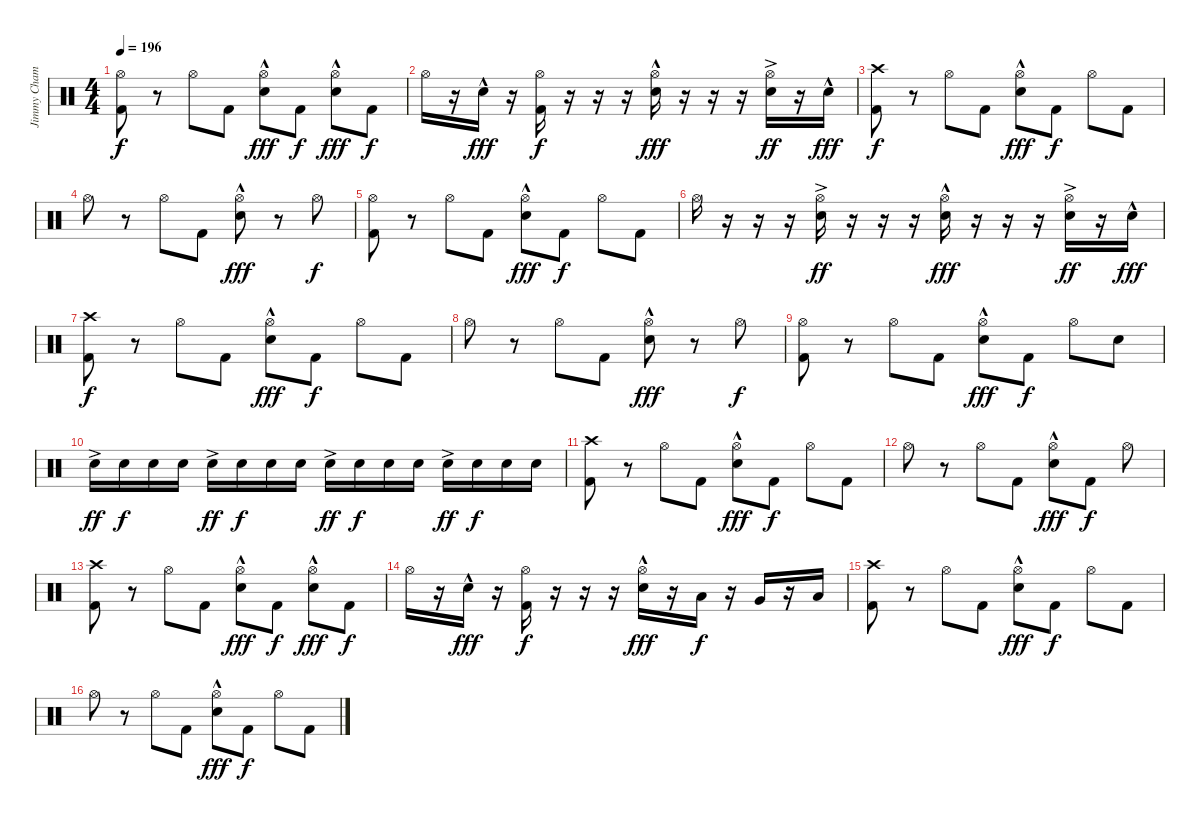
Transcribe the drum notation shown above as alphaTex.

\track ("Jimmy Chamberlin" "Jimmy Cham") {instrument percussion}
\staff {score}
\articulation defaults
\ts (4 4)
\tempo 196
\clef neutral
\ks c
("Hi-Hat (open)" "Kick (hit) 2").8{dy f} r.8 "Hi-Hat (open)".8 "Kick (hit) 2".8 ("Hi-Hat (open)" "Electric Snare (hit)"{hac}).8{dy fff} "Kick (hit) 2".8{dy f} ("Hi-Hat (open)" "Electric Snare (hit)"{hac}).8{dy fff} "Kick (hit) 2".8{dy f} |
"Hi-Hat (open)".16 r.16 "Electric Snare (hit)"{hac}.16{dy fff} r.16 ("Hi-Hat (open)" "Kick (hit) 2").16{dy f} r.16 r.16 r.16 ("Hi-Hat (open)" "Electric Snare (hit)"{hac}).16{dy fff} r.16 r.16 r.16 ("Hi-Hat (open)" "Electric Snare (hit)"{ac}).16{dy ff} r.16 "Electric Snare (hit)"{hac}.16{dy fff} |
("Crash high (hit)" "Kick (hit) 2").8{dy f} r.8 "Hi-Hat (open)".8 "Kick (hit) 2".8 ("Hi-Hat (open)" "Electric Snare (hit)"{hac}).8{dy fff} "Kick (hit) 2".8{dy f} "Hi-Hat (open)".8 "Kick (hit) 2".8 |
"Hi-Hat (open)".8 r.8 "Hi-Hat (open)".8 "Kick (hit) 2".8 ("Hi-Hat (open)" "Electric Snare (hit)"{hac}).8{dy fff} r.8 "Hi-Hat (open)".8{dy f} |
("Hi-Hat (open)" "Kick (hit) 2").8 r.8 "Hi-Hat (open)".8 "Kick (hit) 2".8 ("Hi-Hat (open)" "Electric Snare (hit)"{hac}).8{dy fff} "Kick (hit) 2".8{dy f} "Hi-Hat (open)".8 "Kick (hit) 2".8 |
"Hi-Hat (open)".16 r.16 r.16 r.16 ("Hi-Hat (open)" "Electric Snare (hit)"{ac}).16{dy ff} r.16 r.16 r.16 ("Hi-Hat (open)" "Electric Snare (hit)"{hac}).16{dy fff} r.16 r.16 r.16 ("Hi-Hat (open)" "Electric Snare (hit)"{ac}).16{dy ff} r.16 "Electric Snare (hit)"{hac}.16{dy fff} |
("Crash high (hit)" "Kick (hit) 2").8{dy f} r.8 "Hi-Hat (open)".8 "Kick (hit) 2".8 ("Hi-Hat (open)" "Electric Snare (hit)"{hac}).8{dy fff} "Kick (hit) 2".8{dy f} "Hi-Hat (open)".8 "Kick (hit) 2".8 |
"Hi-Hat (open)".8 r.8 "Hi-Hat (open)".8 "Kick (hit) 2".8 ("Hi-Hat (open)" "Electric Snare (hit)"{hac}).8{dy fff} r.8 "Hi-Hat (open)".8{dy f} |
("Hi-Hat (open)" "Kick (hit) 2").8 r.8 "Hi-Hat (open)".8 "Kick (hit) 2".8 ("Hi-Hat (open)" "Electric Snare (hit)"{hac}).8{dy fff} "Kick (hit) 2".8{dy f} "Hi-Hat (open)".8 "Electric Snare (hit)".8 |
"Electric Snare (hit)"{ac}.16{dy ff} "Electric Snare (hit)".16{dy f} "Electric Snare (hit)".16 "Electric Snare (hit)".16 "Electric Snare (hit)"{ac}.16{dy ff} "Electric Snare (hit)".16{dy f} "Electric Snare (hit)".16 "Electric Snare (hit)".16 "Electric Snare (hit)"{ac}.16{dy ff} "Electric Snare (hit)".16{dy f} "Electric Snare (hit)".16 "Electric Snare (hit)".16 "Electric Snare (hit)"{ac}.16{dy ff} "Electric Snare (hit)".16{dy f} "Electric Snare (hit)".16 "Electric Snare (hit)".16 |
("Crash high (hit)" "Kick (hit) 2").8 r.8 "Hi-Hat (open)".8 "Kick (hit) 2".8 ("Hi-Hat (open)" "Electric Snare (hit)"{hac}).8{dy fff} "Kick (hit) 2".8{dy f} "Hi-Hat (open)".8 "Kick (hit) 2".8 |
"Hi-Hat (open)".8 r.8 "Hi-Hat (open)".8 "Kick (hit) 2".8 ("Hi-Hat (open)" "Electric Snare (hit)"{hac}).8{dy fff} "Kick (hit) 2".8{dy f} "Hi-Hat (open)".8 |
("Crash high (hit)" "Kick (hit) 2").8 r.8 "Hi-Hat (open)".8 "Kick (hit) 2".8 ("Hi-Hat (open)" "Electric Snare (hit)"{hac}).8{dy fff} "Kick (hit) 2".8{dy f} ("Hi-Hat (open)" "Electric Snare (hit)"{hac}).8{dy fff} "Kick (hit) 2".8{dy f} |
"Hi-Hat (open)".16 r.16 "Electric Snare (hit)"{hac}.16{dy fff} r.16 ("Hi-Hat (open)" "Kick (hit) 2").16{dy f} r.16 r.16 r.16 ("Hi-Hat (open)" "Electric Snare (hit)"{hac}).16{dy fff} r.16 "Low Tom (hit)".16{dy f} r.16 "Very Low Tom (hit)".16 r.16 "Low Floor Tom (hit)".16 |
("Crash high (hit)" "Kick (hit) 2").8 r.8 "Hi-Hat (open)".8 "Kick (hit) 2".8 ("Hi-Hat (open)" "Electric Snare (hit)"{hac}).8{dy fff} "Kick (hit) 2".8{dy f} "Hi-Hat (open)".8 "Kick (hit) 2".8 |
"Hi-Hat (open)".8 r.8 "Hi-Hat (open)".8 "Kick (hit) 2".8 ("Hi-Hat (open)" "Electric Snare (hit)"{hac}).8{dy fff} "Kick (hit) 2".8{dy f} "Hi-Hat (open)".8 "Kick (hit) 2".8
